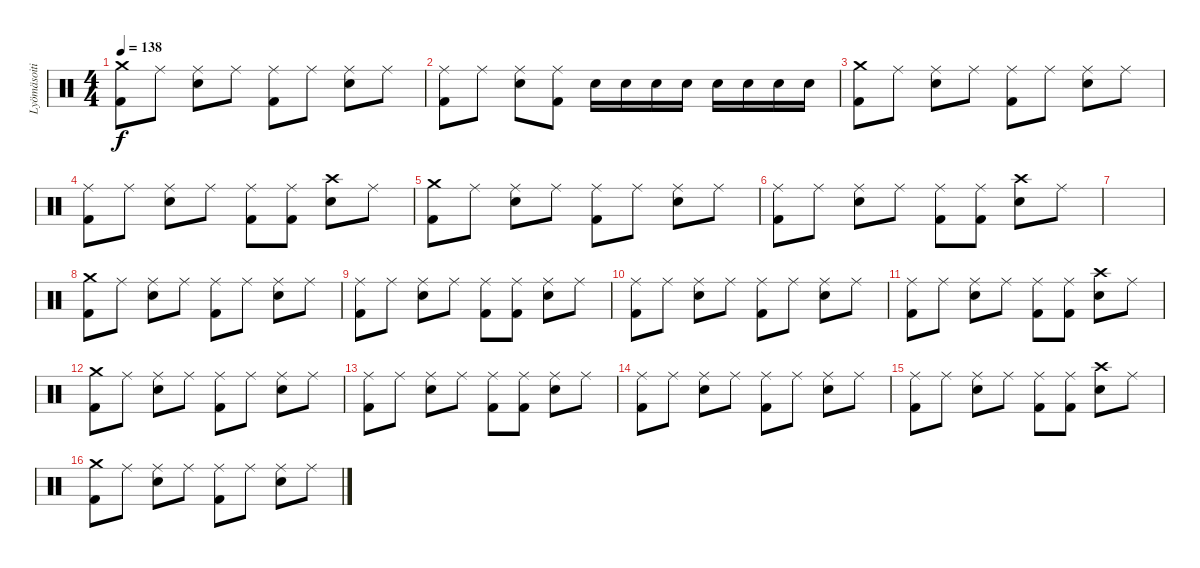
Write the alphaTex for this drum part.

\track ("Lyömäsoitin" "Lyömäsoiti") {instrument percussion}
\staff {score}
\articulation defaults
\ts (4 4)
\tempo 138
\clef neutral
\ks c
("Crash medium (hit)" "Kick (hit) 2").8{dy f} "Ride (middle)".8 ("Ride (middle)" "Electric Snare (hit)").8 "Ride (middle)".8 ("Ride (middle)" "Kick (hit) 2").8 "Ride (middle)".8 ("Ride (middle)" "Electric Snare (hit)").8 "Ride (middle)".8 |
("Ride (middle)" "Kick (hit) 2").8 "Ride (middle)".8 ("Ride (middle)" "Electric Snare (hit)").8 ("Ride (middle)" "Kick (hit) 2").8 "Electric Snare (hit)".16 "Electric Snare (hit)".16 "Electric Snare (hit)".16 "Electric Snare (hit)".16 "Electric Snare (hit)".16 "Electric Snare (hit)".16 "Electric Snare (hit)".16 "Electric Snare (hit)".16 |
("Crash medium (hit)" "Kick (hit) 2").8 "Ride (middle)".8 ("Ride (middle)" "Electric Snare (hit)").8 "Ride (middle)".8 ("Ride (middle)" "Kick (hit) 2").8 "Ride (middle)".8 ("Ride (middle)" "Electric Snare (hit)").8 "Ride (middle)".8 |
("Ride (middle)" "Kick (hit) 2").8 "Ride (middle)".8 ("Ride (middle)" "Electric Snare (hit)").8 "Ride (middle)".8 ("Ride (middle)" "Kick (hit) 2").8 ("Ride (middle)" "Kick (hit) 2").8 ("Crash high (hit)" "Electric Snare (hit)").8 "Ride (middle)".8 |
("Crash medium (hit)" "Kick (hit) 2").8 "Ride (middle)".8 ("Ride (middle)" "Electric Snare (hit)").8 "Ride (middle)".8 ("Ride (middle)" "Kick (hit) 2").8 "Ride (middle)".8 ("Ride (middle)" "Electric Snare (hit)").8 "Ride (middle)".8 |
("Ride (middle)" "Kick (hit) 2").8 "Ride (middle)".8 ("Ride (middle)" "Electric Snare (hit)").8 "Ride (middle)".8 ("Ride (middle)" "Kick (hit) 2").8 ("Ride (middle)" "Kick (hit) 2").8 ("Crash high (hit)" "Electric Snare (hit)").8 "Ride (middle)".8 |
|
("Crash medium (hit)" "Kick (hit) 2").8 "Ride (middle)".8 ("Ride (middle)" "Electric Snare (hit)").8 "Ride (middle)".8 ("Ride (middle)" "Kick (hit) 2").8 "Ride (middle)".8 ("Ride (middle)" "Electric Snare (hit)").8 "Ride (middle)".8 |
("Ride (middle)" "Kick (hit) 2").8 "Ride (middle)".8 ("Ride (middle)" "Electric Snare (hit)").8 "Ride (middle)".8 ("Ride (middle)" "Kick (hit) 2").8 ("Ride (middle)" "Kick (hit) 2").8 ("Ride (middle)" "Electric Snare (hit)").8 "Ride (middle)".8 |
("Ride (middle)" "Kick (hit) 2").8 "Ride (middle)".8 ("Ride (middle)" "Electric Snare (hit)").8 "Ride (middle)".8 ("Ride (middle)" "Kick (hit) 2").8 "Ride (middle)".8 ("Ride (middle)" "Electric Snare (hit)").8 "Ride (middle)".8 |
("Ride (middle)" "Kick (hit) 2").8 "Ride (middle)".8 ("Ride (middle)" "Electric Snare (hit)").8 "Ride (middle)".8 ("Ride (middle)" "Kick (hit) 2").8 ("Ride (middle)" "Kick (hit) 2").8 ("Crash high (hit)" "Electric Snare (hit)").8 "Ride (middle)".8 |
("Crash medium (hit)" "Kick (hit) 2").8 "Ride (middle)".8 ("Ride (middle)" "Electric Snare (hit)").8 "Ride (middle)".8 ("Ride (middle)" "Kick (hit) 2").8 "Ride (middle)".8 ("Ride (middle)" "Electric Snare (hit)").8 "Ride (middle)".8 |
("Ride (middle)" "Kick (hit) 2").8 "Ride (middle)".8 ("Ride (middle)" "Electric Snare (hit)").8 "Ride (middle)".8 ("Ride (middle)" "Kick (hit) 2").8 ("Ride (middle)" "Kick (hit) 2").8 ("Ride (middle)" "Electric Snare (hit)").8 "Ride (middle)".8 |
("Ride (middle)" "Kick (hit) 2").8 "Ride (middle)".8 ("Ride (middle)" "Electric Snare (hit)").8 "Ride (middle)".8 ("Ride (middle)" "Kick (hit) 2").8 "Ride (middle)".8 ("Ride (middle)" "Electric Snare (hit)").8 "Ride (middle)".8 |
("Ride (middle)" "Kick (hit) 2").8 "Ride (middle)".8 ("Ride (middle)" "Electric Snare (hit)").8 "Ride (middle)".8 ("Ride (middle)" "Kick (hit) 2").8 ("Ride (middle)" "Kick (hit) 2").8 ("Crash high (hit)" "Electric Snare (hit)").8 "Ride (middle)".8 |
("Crash medium (hit)" "Kick (hit) 2").8 "Ride (middle)".8 ("Ride (middle)" "Electric Snare (hit)").8 "Ride (middle)".8 ("Ride (middle)" "Kick (hit) 2").8 "Ride (middle)".8 ("Ride (middle)" "Electric Snare (hit)").8 "Ride (middle)".8
